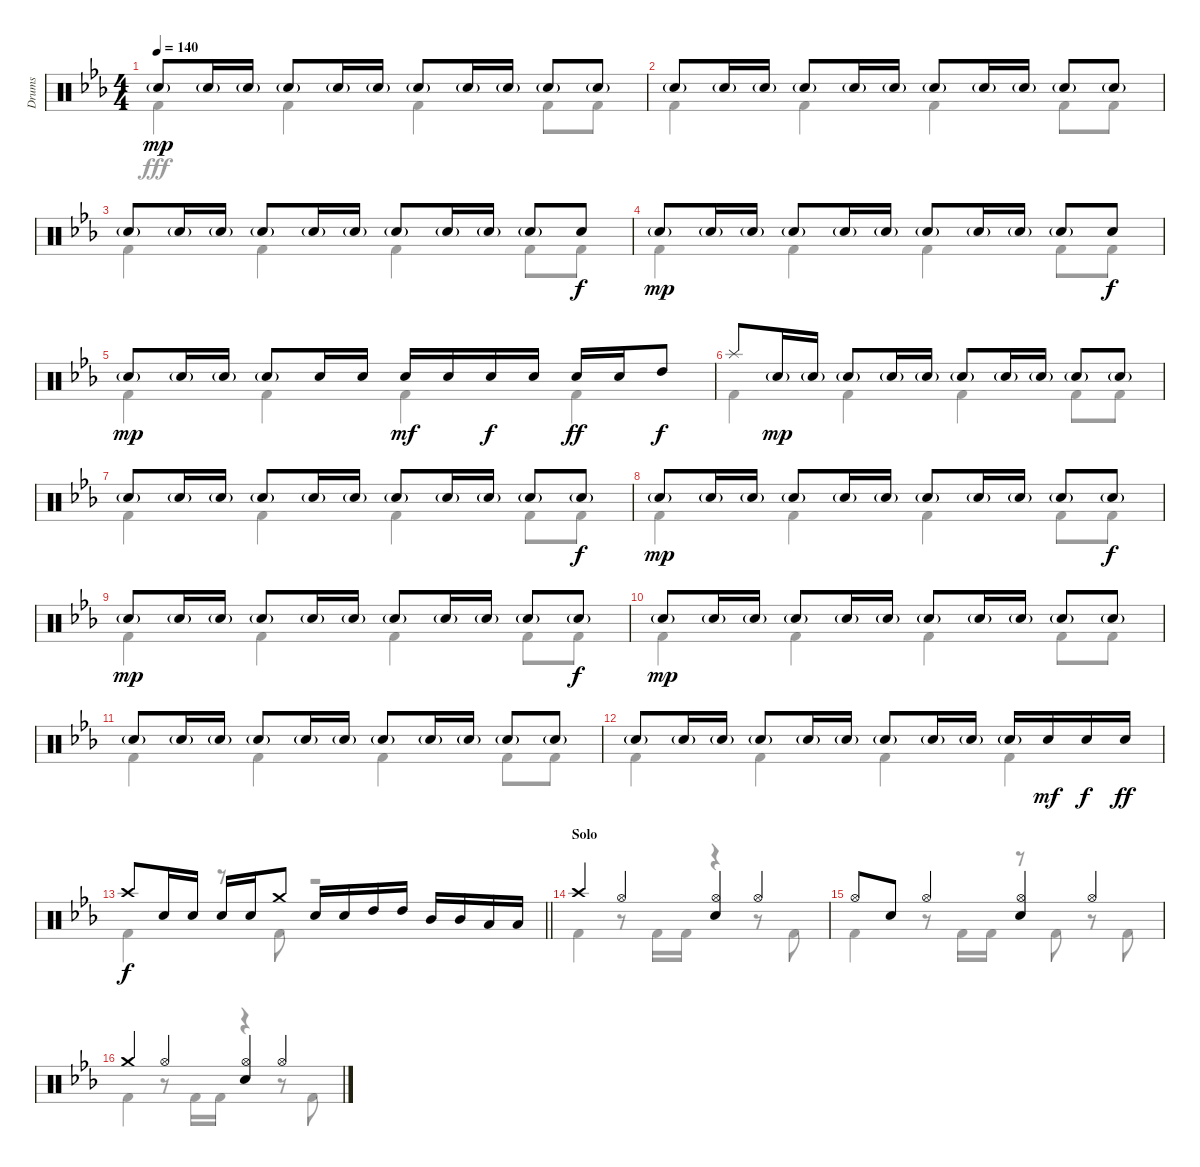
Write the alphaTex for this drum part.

\track ("Drums" "Drums") {instrument percussion}
\staff {score}
\articulation defaults
\voice
\ts (4 4)
\tempo 140
\clef neutral
\ks eb "Snare (hit) 2"{g}.8{dy mp} "Snare (hit) 2"{g}.16 "Snare (hit) 2"{g}.16 "Snare (hit) 2"{g}.8 "Snare (hit) 2"{g}.16 "Snare (hit) 2"{g}.16 "Snare (hit) 2"{g}.8 "Snare (hit) 2"{g}.16 "Snare (hit) 2"{g}.16 "Snare (hit) 2"{g}.8 "Snare (hit) 2"{g}.8
|
"Snare (hit) 2"{g}.8 "Snare (hit) 2"{g}.16 "Snare (hit) 2"{g}.16 "Snare (hit) 2"{g}.8 "Snare (hit) 2"{g}.16 "Snare (hit) 2"{g}.16 "Snare (hit) 2"{g}.8 "Snare (hit) 2"{g}.16 "Snare (hit) 2"{g}.16 "Snare (hit) 2"{g}.8 "Snare (hit) 2"{g}.8 |
"Snare (hit) 2"{g}.8 "Snare (hit) 2"{g}.16 "Snare (hit) 2"{g}.16 "Snare (hit) 2"{g}.8 "Snare (hit) 2"{g}.16 "Snare (hit) 2"{g}.16 "Snare (hit) 2"{g}.8 "Snare (hit) 2"{g}.16 "Snare (hit) 2"{g}.16 "Snare (hit) 2"{g}.8 "Snare (hit) 2".8{dy f} |
"Snare (hit) 2"{g}.8{dy mp} "Snare (hit) 2"{g}.16 "Snare (hit) 2"{g}.16 "Snare (hit) 2"{g}.8 "Snare (hit) 2"{g}.16 "Snare (hit) 2"{g}.16 "Snare (hit) 2"{g}.8 "Snare (hit) 2"{g}.16 "Snare (hit) 2"{g}.16 "Snare (hit) 2"{g}.8 "Snare (hit) 2".8{dy f} |
"Snare (hit) 2"{g}.8{dy mp} "Snare (hit) 2"{g}.16 "Snare (hit) 2"{g}.16 "Snare (hit) 2"{g}.8 "Snare (hit) 2".16 "Snare (hit) 2".16 "Snare (hit) 2".16{dy mf} "Snare (hit) 2".16 "Snare (hit) 2".16{dy f} "Snare (hit) 2".16 "Snare (hit) 2".16{dy ff} "Snare (hit) 2".16 "High Tom (hit)".8{dy f} |
"Splash (hit)".8 "Snare (hit) 2"{g}.16{dy mp} "Snare (hit) 2"{g}.16 "Snare (hit) 2"{g}.8 "Snare (hit) 2"{g}.16 "Snare (hit) 2"{g}.16 "Snare (hit) 2"{g}.8 "Snare (hit) 2"{g}.16 "Snare (hit) 2"{g}.16 "Snare (hit) 2"{g}.8 "Snare (hit) 2"{g}.8 |
"Snare (hit) 2"{g}.8 "Snare (hit) 2"{g}.16 "Snare (hit) 2"{g}.16 "Snare (hit) 2"{g}.8 "Snare (hit) 2"{g}.16 "Snare (hit) 2"{g}.16 "Snare (hit) 2"{g}.8 "Snare (hit) 2"{g}.16 "Snare (hit) 2"{g}.16 "Snare (hit) 2"{g}.8 "Snare (hit) 2"{g}.8{dy f} |
"Snare (hit) 2"{g}.8{dy mp} "Snare (hit) 2"{g}.16 "Snare (hit) 2"{g}.16 "Snare (hit) 2"{g}.8 "Snare (hit) 2"{g}.16 "Snare (hit) 2"{g}.16 "Snare (hit) 2"{g}.8 "Snare (hit) 2"{g}.16 "Snare (hit) 2"{g}.16 "Snare (hit) 2"{g}.8 "Snare (hit) 2"{g}.8{dy f} |
"Snare (hit) 2"{g}.8{dy mp} "Snare (hit) 2"{g}.16 "Snare (hit) 2"{g}.16 "Snare (hit) 2"{g}.8 "Snare (hit) 2"{g}.16 "Snare (hit) 2"{g}.16 "Snare (hit) 2"{g}.8 "Snare (hit) 2"{g}.16 "Snare (hit) 2"{g}.16 "Snare (hit) 2"{g}.8 "Snare (hit) 2"{g}.8{dy f} |
"Snare (hit) 2"{g}.8{dy mp} "Snare (hit) 2"{g}.16 "Snare (hit) 2"{g}.16 "Snare (hit) 2"{g}.8 "Snare (hit) 2"{g}.16 "Snare (hit) 2"{g}.16 "Snare (hit) 2"{g}.8 "Snare (hit) 2"{g}.16 "Snare (hit) 2"{g}.16 "Snare (hit) 2"{g}.8 "Snare (hit) 2"{g}.8 |
"Snare (hit) 2"{g}.8 "Snare (hit) 2"{g}.16 "Snare (hit) 2"{g}.16 "Snare (hit) 2"{g}.8 "Snare (hit) 2"{g}.16 "Snare (hit) 2"{g}.16 "Snare (hit) 2"{g}.8 "Snare (hit) 2"{g}.16 "Snare (hit) 2"{g}.16 "Snare (hit) 2"{g}.8 "Snare (hit) 2"{g}.8 |
"Snare (hit) 2"{g}.8 "Snare (hit) 2"{g}.16 "Snare (hit) 2"{g}.16 "Snare (hit) 2"{g}.8 "Snare (hit) 2"{g}.16 "Snare (hit) 2"{g}.16 "Snare (hit) 2"{g}.8 "Snare (hit) 2"{g}.16 "Snare (hit) 2"{g}.16 "Snare (hit) 2"{g}.16 "Snare (hit) 2".16{dy mf} "Snare (hit) 2".16{dy f} "Snare (hit) 2".16{dy ff} |
\barLineRight lightlight "Crash high (hit)".8{dy f} "Snare (hit) 2".16 "Snare (hit) 2".16 "Snare (hit) 2".16 "Snare (hit) 2".16 "Crash medium (hit)".8 "Snare (hit) 2".16 "Snare (hit) 2".16 "High Tom (hit)".16 "High Tom (hit)".16 "Mid Tom (hit)".16 "Mid Tom (hit)".16 "Low Tom (hit)".16 "Low Tom (hit)".16
|
\section ("" "Solo")
"Crash high (hit)".4 "Hi-Hat (open)".4 ("Hi-Hat (open)" "Snare (hit) 2").4 "Hi-Hat (open)".4 |
"Hi-Hat (open)".8 "Snare (hit) 2".8 "Hi-Hat (open)".4 ("Hi-Hat (open)" "Snare (hit) 2").4 "Hi-Hat (open)".4 |
"Crash medium (hit)".4 "Hi-Hat (open)".4 ("Hi-Hat (open)" "Snare (hit) 2").4 "Hi-Hat (open)".4
\voice
\clef neutral
\ottava regular
\simile none
\ks eb "Kick (hit) 2".4{dy fff} "Kick (hit) 2".4 "Kick (hit) 2".4 "Kick (hit) 2".8 "Kick (hit) 2".8
|
"Kick (hit) 2".4 "Kick (hit) 2".4 "Kick (hit) 2".4 "Kick (hit) 2".8 "Kick (hit) 2".8 |
"Kick (hit) 2".4 "Kick (hit) 2".4 "Kick (hit) 2".4 "Kick (hit) 2".8 "Kick (hit) 2".8 |
"Kick (hit) 2".4 "Kick (hit) 2".4 "Kick (hit) 2".4 "Kick (hit) 2".8 "Kick (hit) 2".8 |
"Kick (hit) 2".4 "Kick (hit) 2".4 "Kick (hit) 2".4 "Kick (hit) 2".4 |
"Kick (hit) 2".4 "Kick (hit) 2".4 "Kick (hit) 2".4 "Kick (hit) 2".8 "Kick (hit) 2".8 |
"Kick (hit) 2".4 "Kick (hit) 2".4 "Kick (hit) 2".4 "Kick (hit) 2".8 "Kick (hit) 2".8 |
"Kick (hit) 2".4 "Kick (hit) 2".4 "Kick (hit) 2".4 "Kick (hit) 2".8 "Kick (hit) 2".8 |
"Kick (hit) 2".4 "Kick (hit) 2".4 "Kick (hit) 2".4 "Kick (hit) 2".8 "Kick (hit) 2".8 |
"Kick (hit) 2".4 "Kick (hit) 2".4 "Kick (hit) 2".4 "Kick (hit) 2".8 "Kick (hit) 2".8 |
"Kick (hit) 2".4 "Kick (hit) 2".4 "Kick (hit) 2".4 "Kick (hit) 2".8 "Kick (hit) 2".8 |
"Kick (hit) 2".4 "Kick (hit) 2".4 "Kick (hit) 2".4 "Kick (hit) 2".4 |
\barLineRight lightlight "Kick (hit) 2".4
r.8 "Kick (hit) 2".8 r.2 |
"Kick (hit) 2".4 r.8 "Kick (hit) 2".16 "Kick (hit) 2".16 r.4 r.8 "Kick (hit) 2".8 |
"Kick (hit) 2".4 r.8 "Kick (hit) 2".16 "Kick (hit) 2".16 r.8 "Kick (hit) 2".8 r.8 "Kick (hit) 2".8 |
"Kick (hit) 2".4 r.8 "Kick (hit) 2".16 "Kick (hit) 2".16 r.4 r.8 "Kick (hit) 2".8
